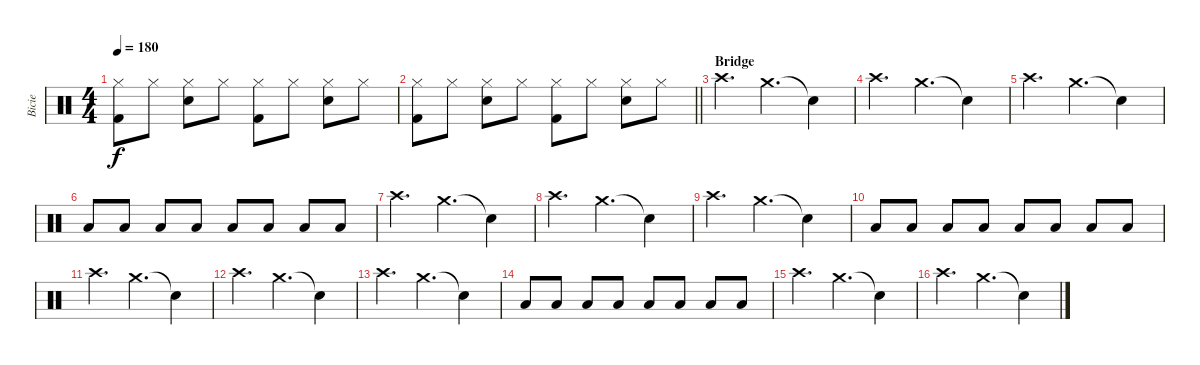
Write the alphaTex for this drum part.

\track ("Bicie" "Bicie") {instrument percussion}
\staff {score}
\articulation defaults
\ts (4 4)
\tempo 180
\clef neutral
\ks c
("Hi-Hat (closed)" "Kick (hit) 2").8{dy f} "Hi-Hat (closed)".8 ("Hi-Hat (closed)" "Snare (hit) 2").8 "Hi-Hat (closed)".8 ("Hi-Hat (closed)" "Kick (hit) 2").8 "Hi-Hat (closed)".8 ("Hi-Hat (closed)" "Snare (hit) 2").8 "Hi-Hat (closed)".8 |
\barLineRight lightlight
("Hi-Hat (closed)" "Kick (hit) 2").8 "Hi-Hat (closed)".8 ("Hi-Hat (closed)" "Snare (hit) 2").8 "Hi-Hat (closed)".8 ("Hi-Hat (closed)" "Kick (hit) 2").8 "Hi-Hat (closed)".8 ("Hi-Hat (closed)" "Snare (hit) 2").8 "Hi-Hat (closed)".8 |
\section ("" "Bridge")
"Crash high (hit)".4{d} "Crash medium (hit)".4{d} "Snare (hit)"{t}.4 |
"Crash high (hit)".4{d} "Crash medium (hit)".4{d} "Snare (hit)"{t}.4 |
"Crash high (hit)".4{d} "Crash medium (hit)".4{d} "Snare (hit)"{t}.4 |
"Low Floor Tom (hit)".8 "Low Floor Tom (hit)".8 "Low Floor Tom (hit)".8 "Low Floor Tom (hit)".8 "Low Floor Tom (hit)".8 "Low Floor Tom (hit)".8 "Low Floor Tom (hit)".8 "Low Floor Tom (hit)".8 |
"Crash high (hit)".4{d} "Crash medium (hit)".4{d} "Snare (hit)"{t}.4 |
"Crash high (hit)".4{d} "Crash medium (hit)".4{d} "Snare (hit)"{t}.4 |
"Crash high (hit)".4{d} "Crash medium (hit)".4{d} "Snare (hit)"{t}.4 |
"Low Floor Tom (hit)".8 "Low Floor Tom (hit)".8 "Low Floor Tom (hit)".8 "Low Floor Tom (hit)".8 "Low Floor Tom (hit)".8 "Low Floor Tom (hit)".8 "Low Floor Tom (hit)".8 "Low Floor Tom (hit)".8 |
"Crash high (hit)".4{d} "Crash medium (hit)".4{d} "Snare (hit)"{t}.4 |
"Crash high (hit)".4{d} "Crash medium (hit)".4{d} "Snare (hit)"{t}.4 |
"Crash high (hit)".4{d} "Crash medium (hit)".4{d} "Snare (hit)"{t}.4 |
"Low Floor Tom (hit)".8 "Low Floor Tom (hit)".8 "Low Floor Tom (hit)".8 "Low Floor Tom (hit)".8 "Low Floor Tom (hit)".8 "Low Floor Tom (hit)".8 "Low Floor Tom (hit)".8 "Low Floor Tom (hit)".8 |
"Crash high (hit)".4{d} "Crash medium (hit)".4{d} "Snare (hit)"{t}.4 |
"Crash high (hit)".4{d} "Crash medium (hit)".4{d} "Snare (hit)"{t}.4
